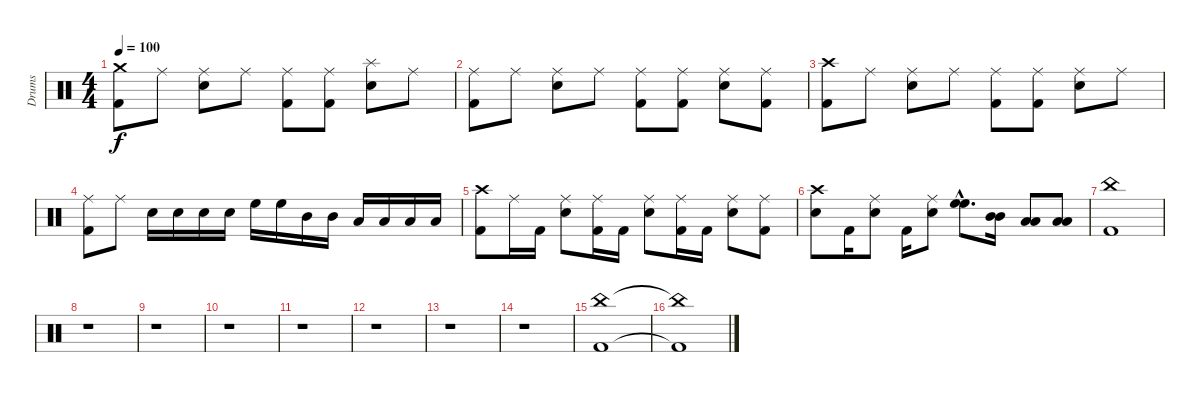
\track ("Drums" "Drums") {instrument percussion}
\staff {score}
\articulation defaults
\ts (4 4)
\tempo 100
\clef neutral
\ks c
("Crash medium (hit)" "Kick (hit) 2").8{dy f} "Ride (middle)".8 ("Ride (middle)" "Snare (hit) 2").8 "Ride (middle)".8 ("Ride (middle)" "Kick (hit) 2").8 ("Ride (middle)" "Kick (hit) 2").8 ("Splash (hit)" "Snare (hit) 2").8 "Ride (middle)".8 |
("Ride (middle)" "Kick (hit) 2").8 "Ride (middle)".8 ("Ride (middle)" "Snare (hit) 2").8 "Ride (middle)".8 ("Ride (middle)" "Kick (hit) 2").8 ("Ride (middle)" "Kick (hit) 2").8 ("Ride (middle)" "Snare (hit) 2").8 ("Ride (middle)" "Kick (hit) 2").8 |
("Crash high (hit)" "Kick (hit) 2").8 "Ride (middle)".8 ("Ride (middle)" "Snare (hit) 2").8 "Ride (middle)".8 ("Ride (middle)" "Kick (hit) 2").8 ("Ride (middle)" "Kick (hit) 2").8 ("Ride (middle)" "Snare (hit) 2").8 "Ride (middle)".8 |
("Ride (middle)" "Kick (hit) 2").8 "Ride (middle)".8 "Snare (hit) 2".16 "Snare (hit) 2".16 "Snare (hit) 2".16 "Snare (hit) 2".16 "High Floor Tom (hit)".16 "High Floor Tom (hit)".16 "Mid Tom (hit)".16 "Mid Tom (hit)".16 "Low Tom (hit)".16 "Low Tom (hit)".16 "Low Floor Tom (hit)".16 "Low Floor Tom (hit)".16 |
("Crash high (hit)" "Kick (hit) 2").8 "Ride (middle)".16 "Kick (hit) 2".16 ("Ride (middle)" "Snare (hit) 2").8 ("Ride (middle)" "Kick (hit) 2").16 "Kick (hit) 2".16 ("Ride (middle)" "Snare (hit) 2").8 ("Ride (middle)" "Kick (hit) 2").16 "Kick (hit) 2".16 ("Ride (middle)" "Snare (hit) 2").8 ("Ride (middle)" "Kick (hit) 2").8 |
("Crash high (hit)" "Snare (hit) 2").8 "Kick (hit) 2".16 ("Ride (middle)" "Snare (hit) 2").8 "Kick (hit) 2".16 ("Ride (middle)" "Snare (hit) 2").8 ("High Floor Tom (hit)"{hac} "High Floor Tom (hit)"{hac}).8{d} ("Mid Tom (hit)" "Mid Tom (hit)").16 ("Low Tom (hit)" "Low Tom (hit)").8 ("Low Floor Tom (hit)" "Low Floor Tom (hit)").8 |
("China (hit)" "Kick (hit) 2").1 |
r.1 |
r.1 |
r.1 |
r.1 |
r.1 |
r.1 |
r.1 |
("China (hit)" "Kick (hit) 2").1 |
("China (hit)"{t} "Kick (hit) 2"{t}).1
